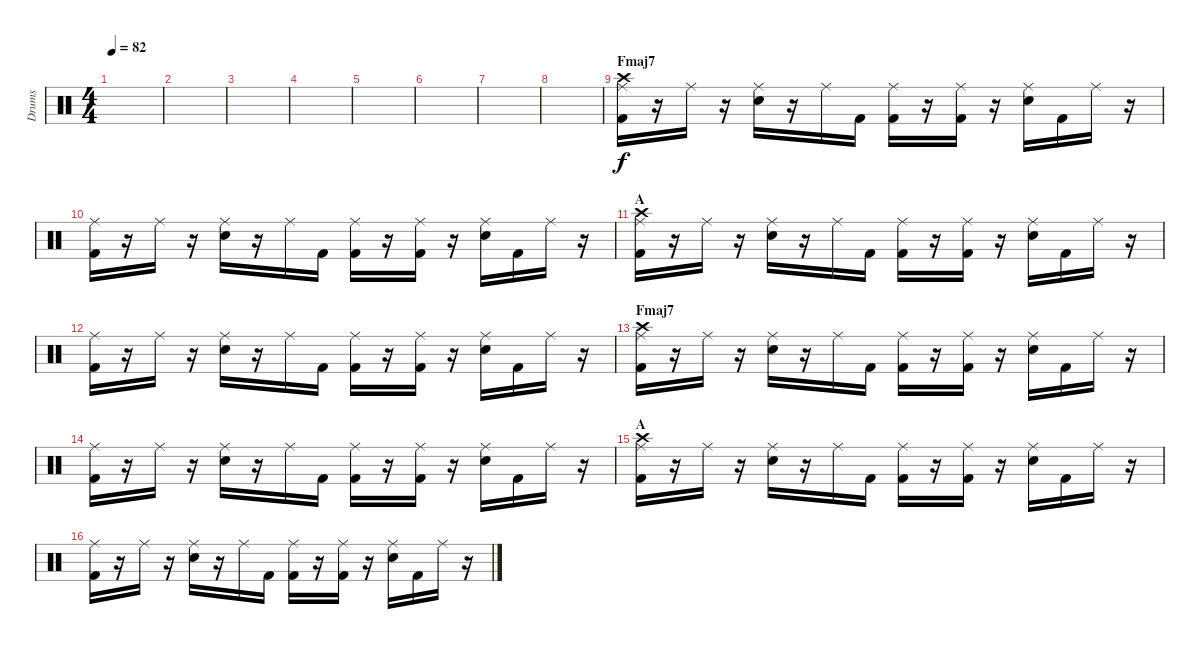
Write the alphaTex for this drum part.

\track ("Drums" "Drums") {instrument percussion}
\staff {score}
\articulation defaults
\ts (4 4)
\tempo 82
\clef neutral
\ks c
|
|
|
|
|
|
|
|
\section ("" "Fmaj7")
("Crash high (hit)" "Ride (middle)" "Kick (hit) 2").16 r.16 "Ride (middle)".16 r.16 ("Ride (middle)" "Snare (hit) 2").16 r.16 "Ride (middle)".16 "Kick (hit) 2".16 ("Ride (middle)" "Kick (hit) 2").16 r.16 ("Ride (middle)" "Kick (hit) 2").16 r.16 ("Ride (middle)" "Snare (hit) 2").16 "Kick (hit) 2".16 "Ride (middle)".16 r.16 |
("Ride (middle)" "Kick (hit) 2").16 r.16 "Ride (middle)".16 r.16 ("Ride (middle)" "Snare (hit) 2").16 r.16 "Ride (middle)".16 "Kick (hit) 2".16 ("Ride (middle)" "Kick (hit) 2").16 r.16 ("Ride (middle)" "Kick (hit) 2").16 r.16 ("Ride (middle)" "Snare (hit) 2").16 "Kick (hit) 2".16 "Ride (middle)".16 r.16 |
\section ("" "A")
("Crash high (hit)" "Ride (middle)" "Kick (hit) 2").16 r.16 "Ride (middle)".16 r.16 ("Ride (middle)" "Snare (hit) 2").16 r.16 "Ride (middle)".16 "Kick (hit) 2".16 ("Ride (middle)" "Kick (hit) 2").16 r.16 ("Ride (middle)" "Kick (hit) 2").16 r.16 ("Ride (middle)" "Snare (hit) 2").16 "Kick (hit) 2".16 "Ride (middle)".16 r.16 |
("Ride (middle)" "Kick (hit) 2").16 r.16 "Ride (middle)".16 r.16 ("Ride (middle)" "Snare (hit) 2").16 r.16 "Ride (middle)".16 "Kick (hit) 2".16 ("Ride (middle)" "Kick (hit) 2").16 r.16 ("Ride (middle)" "Kick (hit) 2").16 r.16 ("Ride (middle)" "Snare (hit) 2").16 "Kick (hit) 2".16 "Ride (middle)".16 r.16 |
\section ("" "Fmaj7")
("Crash high (hit)" "Ride (middle)" "Kick (hit) 2").16 r.16 "Ride (middle)".16 r.16 ("Ride (middle)" "Snare (hit) 2").16 r.16 "Ride (middle)".16 "Kick (hit) 2".16 ("Ride (middle)" "Kick (hit) 2").16 r.16 ("Ride (middle)" "Kick (hit) 2").16 r.16 ("Ride (middle)" "Snare (hit) 2").16 "Kick (hit) 2".16 "Ride (middle)".16 r.16 |
("Ride (middle)" "Kick (hit) 2").16 r.16 "Ride (middle)".16 r.16 ("Ride (middle)" "Snare (hit) 2").16 r.16 "Ride (middle)".16 "Kick (hit) 2".16 ("Ride (middle)" "Kick (hit) 2").16 r.16 ("Ride (middle)" "Kick (hit) 2").16 r.16 ("Ride (middle)" "Snare (hit) 2").16 "Kick (hit) 2".16 "Ride (middle)".16 r.16 |
\section ("" "A")
("Crash high (hit)" "Ride (middle)" "Kick (hit) 2").16 r.16 "Ride (middle)".16 r.16 ("Ride (middle)" "Snare (hit) 2").16 r.16 "Ride (middle)".16 "Kick (hit) 2".16 ("Ride (middle)" "Kick (hit) 2").16 r.16 ("Ride (middle)" "Kick (hit) 2").16 r.16 ("Ride (middle)" "Snare (hit) 2").16 "Kick (hit) 2".16 "Ride (middle)".16 r.16 |
("Ride (middle)" "Kick (hit) 2").16 r.16 "Ride (middle)".16 r.16 ("Ride (middle)" "Snare (hit) 2").16 r.16 "Ride (middle)".16 "Kick (hit) 2".16 ("Ride (middle)" "Kick (hit) 2").16 r.16 ("Ride (middle)" "Kick (hit) 2").16 r.16 ("Ride (middle)" "Snare (hit) 2").16 "Kick (hit) 2".16 "Ride (middle)".16 r.16
